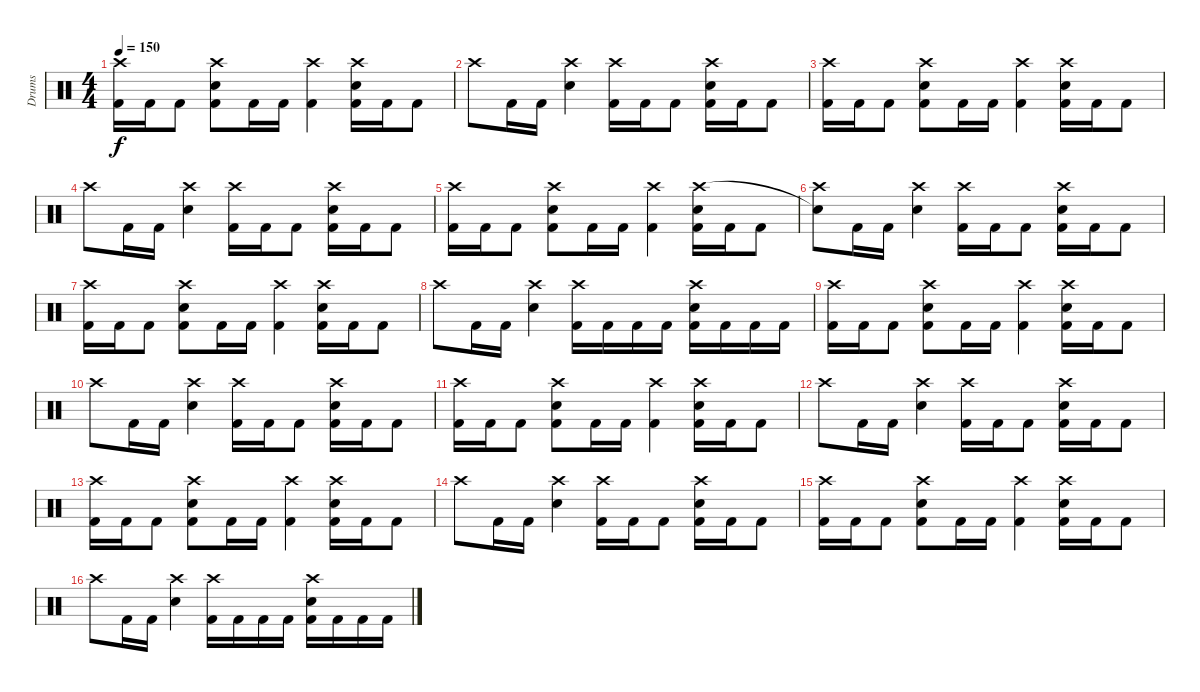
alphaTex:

\track ("Drums" "Drums") {instrument percussion}
\staff {score}
\articulation defaults
\ts (4 4)
\tempo 150
\clef neutral
\ks c
("Crash high (hit)" "Kick (hit) 2").16{dy f} "Kick (hit) 2".16 "Kick (hit) 2".8 ("Kick (hit) 2" "Crash high (hit)" "Electric Snare (hit)").8 "Kick (hit) 2".16 "Kick (hit) 2".16 ("Crash high (hit)" "Kick (hit) 2").4 ("Kick (hit) 2" "Crash high (hit)" "Electric Snare (hit)").16 "Kick (hit) 2".16 "Kick (hit) 2".8 |
"Crash high (hit)".8 "Kick (hit) 2".16 "Kick (hit) 2".16 ("Crash high (hit)" "Electric Snare (hit)").4 ("Crash high (hit)" "Kick (hit) 2").16 "Kick (hit) 2".16 "Kick (hit) 2".8 ("Kick (hit) 2" "Crash high (hit)" "Electric Snare (hit)").16 "Kick (hit) 2".16 "Kick (hit) 2".8 |
("Crash high (hit)" "Kick (hit) 2").16 "Kick (hit) 2".16 "Kick (hit) 2".8 ("Kick (hit) 2" "Crash high (hit)" "Electric Snare (hit)").8 "Kick (hit) 2".16 "Kick (hit) 2".16 ("Crash high (hit)" "Kick (hit) 2").4 ("Kick (hit) 2" "Crash high (hit)" "Electric Snare (hit)").16 "Kick (hit) 2".16 "Kick (hit) 2".8 |
"Crash high (hit)".8 "Kick (hit) 2".16 "Kick (hit) 2".16 ("Crash high (hit)" "Electric Snare (hit)").4 ("Crash high (hit)" "Kick (hit) 2").16 "Kick (hit) 2".16 "Kick (hit) 2".8 ("Kick (hit) 2" "Crash high (hit)" "Electric Snare (hit)").16 "Kick (hit) 2".16 "Kick (hit) 2".8 |
("Crash high (hit)" "Kick (hit) 2").16 "Kick (hit) 2".16 "Kick (hit) 2".8 ("Kick (hit) 2" "Crash high (hit)" "Electric Snare (hit)").8 "Kick (hit) 2".16 "Kick (hit) 2".16 ("Crash high (hit)" "Kick (hit) 2").4 ("Kick (hit) 2" "Crash high (hit)" "Electric Snare (hit)").16 "Kick (hit) 2".16 "Kick (hit) 2".8 |
("Crash high (hit)" "Electric Snare (hit)"{t}).8 "Kick (hit) 2".16 "Kick (hit) 2".16 ("Crash high (hit)" "Electric Snare (hit)").4 ("Crash high (hit)" "Kick (hit) 2").16 "Kick (hit) 2".16 "Kick (hit) 2".8 ("Kick (hit) 2" "Crash high (hit)" "Electric Snare (hit)").16 "Kick (hit) 2".16 "Kick (hit) 2".8 |
("Crash high (hit)" "Kick (hit) 2").16 "Kick (hit) 2".16 "Kick (hit) 2".8 ("Kick (hit) 2" "Crash high (hit)" "Electric Snare (hit)").8 "Kick (hit) 2".16 "Kick (hit) 2".16 ("Crash high (hit)" "Kick (hit) 2").4 ("Kick (hit) 2" "Crash high (hit)" "Electric Snare (hit)").16 "Kick (hit) 2".16 "Kick (hit) 2".8 |
"Crash high (hit)".8 "Kick (hit) 2".16 "Kick (hit) 2".16 ("Crash high (hit)" "Electric Snare (hit)").4 ("Crash high (hit)" "Kick (hit) 2").16 "Kick (hit) 2".16 "Kick (hit) 2".16 "Kick (hit) 2".16 ("Crash high (hit)" "Electric Snare (hit)" "Kick (hit) 2").16 "Kick (hit) 2".16 "Kick (hit) 2".16 "Kick (hit) 2".16 |
("Crash high (hit)" "Kick (hit) 2").16 "Kick (hit) 2".16 "Kick (hit) 2".8 ("Kick (hit) 2" "Crash high (hit)" "Electric Snare (hit)").8 "Kick (hit) 2".16 "Kick (hit) 2".16 ("Crash high (hit)" "Kick (hit) 2").4 ("Kick (hit) 2" "Crash high (hit)" "Electric Snare (hit)").16 "Kick (hit) 2".16 "Kick (hit) 2".8 |
"Crash high (hit)".8 "Kick (hit) 2".16 "Kick (hit) 2".16 ("Crash high (hit)" "Electric Snare (hit)").4 ("Crash high (hit)" "Kick (hit) 2").16 "Kick (hit) 2".16 "Kick (hit) 2".8 ("Kick (hit) 2" "Crash high (hit)" "Electric Snare (hit)").16 "Kick (hit) 2".16 "Kick (hit) 2".8 |
("Crash high (hit)" "Kick (hit) 2").16 "Kick (hit) 2".16 "Kick (hit) 2".8 ("Kick (hit) 2" "Crash high (hit)" "Electric Snare (hit)").8 "Kick (hit) 2".16 "Kick (hit) 2".16 ("Crash high (hit)" "Kick (hit) 2").4 ("Kick (hit) 2" "Crash high (hit)" "Electric Snare (hit)").16 "Kick (hit) 2".16 "Kick (hit) 2".8 |
"Crash high (hit)".8 "Kick (hit) 2".16 "Kick (hit) 2".16 ("Crash high (hit)" "Electric Snare (hit)").4 ("Crash high (hit)" "Kick (hit) 2").16 "Kick (hit) 2".16 "Kick (hit) 2".8 ("Kick (hit) 2" "Crash high (hit)" "Electric Snare (hit)").16 "Kick (hit) 2".16 "Kick (hit) 2".8 |
("Crash high (hit)" "Kick (hit) 2").16 "Kick (hit) 2".16 "Kick (hit) 2".8 ("Kick (hit) 2" "Crash high (hit)" "Electric Snare (hit)").8 "Kick (hit) 2".16 "Kick (hit) 2".16 ("Crash high (hit)" "Kick (hit) 2").4 ("Kick (hit) 2" "Crash high (hit)" "Electric Snare (hit)").16 "Kick (hit) 2".16 "Kick (hit) 2".8 |
"Crash high (hit)".8 "Kick (hit) 2".16 "Kick (hit) 2".16 ("Crash high (hit)" "Electric Snare (hit)").4 ("Crash high (hit)" "Kick (hit) 2").16 "Kick (hit) 2".16 "Kick (hit) 2".8 ("Kick (hit) 2" "Crash high (hit)" "Electric Snare (hit)").16 "Kick (hit) 2".16 "Kick (hit) 2".8 |
("Crash high (hit)" "Kick (hit) 2").16 "Kick (hit) 2".16 "Kick (hit) 2".8 ("Kick (hit) 2" "Crash high (hit)" "Electric Snare (hit)").8 "Kick (hit) 2".16 "Kick (hit) 2".16 ("Crash high (hit)" "Kick (hit) 2").4 ("Kick (hit) 2" "Crash high (hit)" "Electric Snare (hit)").16 "Kick (hit) 2".16 "Kick (hit) 2".8 |
"Crash high (hit)".8 "Kick (hit) 2".16 "Kick (hit) 2".16 ("Crash high (hit)" "Electric Snare (hit)").4 ("Crash high (hit)" "Kick (hit) 2").16 "Kick (hit) 2".16 "Kick (hit) 2".16 "Kick (hit) 2".16 ("Crash high (hit)" "Electric Snare (hit)" "Kick (hit) 2").16 "Kick (hit) 2".16 "Kick (hit) 2".16 "Kick (hit) 2".16
